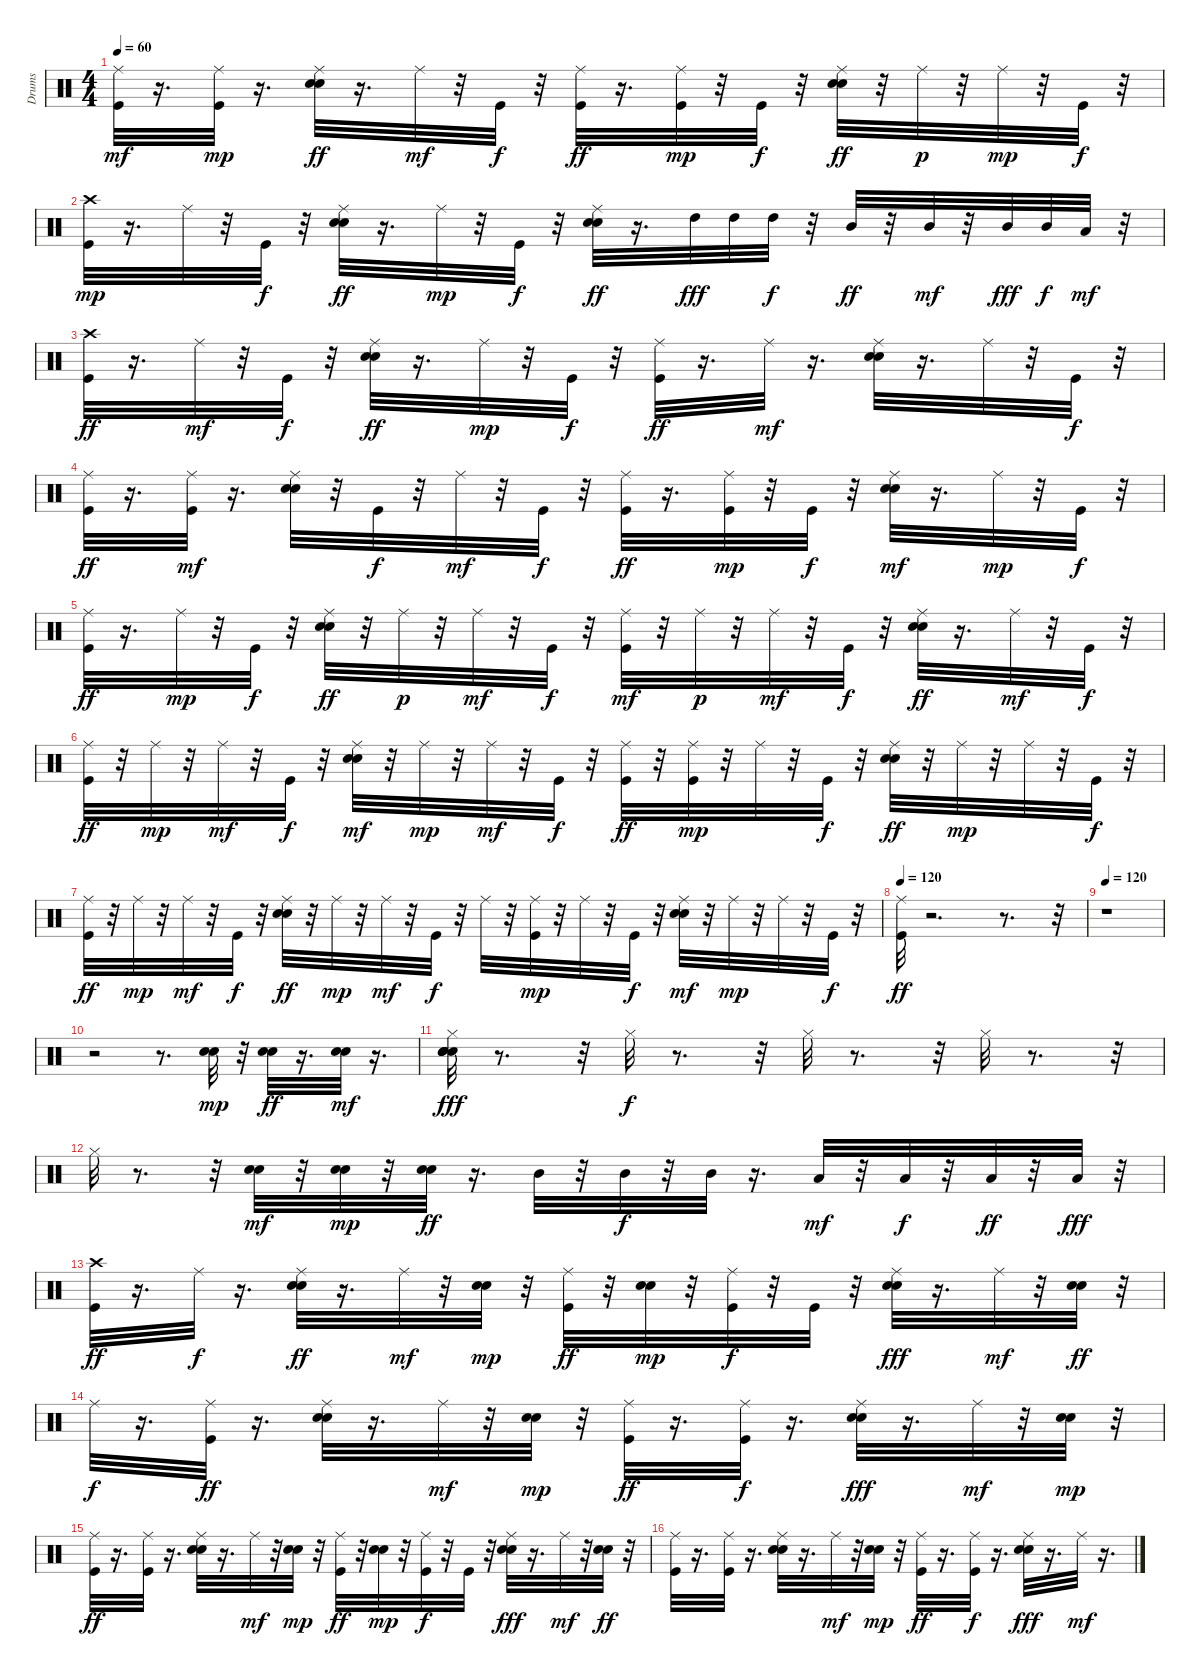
\track ("Drums" "Drums") {instrument percussion}
\staff {score}
\articulation defaults
\ts (4 4)
\tempo 60
\clef neutral
\ks c
("Kick (hit)" "Ride (middle)").32{dy mf} r.16{d} ("Kick (hit)" "Ride (middle)").32{dy mp} r.16{d} ("Ride (middle)" "Snare (hit) 2" "Electric Snare (hit)").32{dy ff} r.16{d} "Ride (middle)".32{dy mf} r.32 "Kick (hit)".32{dy f} r.32 ("Ride (middle)" "Kick (hit)").32{dy ff} r.16{d} ("Kick (hit)" "Ride (middle)").32{dy mp} r.32 "Kick (hit)".32{dy f} r.32 ("Snare (hit) 2" "Ride (middle)" "Electric Snare (hit)").32{dy ff} r.32 "Ride (middle)".32{dy p} r.32 "Ride (middle)".32{dy mp} r.32 "Kick (hit)".32{dy f} r.32 |
("Kick (hit)" "Crash high (hit)").32{dy mp} r.16{d} "Ride (middle)".32 r.32 "Kick (hit)".32{dy f} r.32 ("Snare (hit) 2" "Ride (middle)" "Electric Snare (hit)").32{dy ff} r.16{d} "Ride (middle)".32{dy mp} r.32 "Kick (hit)".32{dy f} r.32 ("Ride (middle)" "Snare (hit) 2" "Electric Snare (hit)").32{dy ff} r.16{d} "High Tom (hit)".32{dy fff} "High Tom (hit)".32 "High Tom (hit)".32{dy f} r.32 "Mid Tom (hit)".32{dy ff} r.32 "Mid Tom (hit)".32{dy mf} r.32 "Mid Tom (hit)".32{dy fff} "Mid Tom (hit)".32{dy f} "Low Tom (hit)".32{dy mf} r.32 |
("Crash high (hit)" "Kick (hit)").32{dy ff} r.16{d} "Ride (middle)".32{dy mf} r.32 "Kick (hit)".32{dy f} r.32 ("Snare (hit) 2" "Electric Snare (hit)" "Ride (middle)").32{dy ff} r.16{d} "Ride (middle)".32{dy mp} r.32 "Kick (hit)".32{dy f} r.32 ("Ride (middle)" "Kick (hit)").32{dy ff} r.16{d} "Ride (middle)".32{dy mf} r.16{d} ("Ride (middle)" "Electric Snare (hit)" "Snare (hit) 2").32 r.16{d} "Ride (middle)".32 r.32 "Kick (hit)".32{dy f} r.32 |
("Ride (middle)" "Kick (hit)").32{dy ff} r.16{d} ("Kick (hit)" "Ride (middle)").32{dy mf} r.16{d} ("Electric Snare (hit)" "Ride (middle)" "Snare (hit) 2").32 r.32 "Kick (hit)".32{dy f} r.32 "Ride (middle)".32{dy mf} r.32 "Kick (hit)".32{dy f} r.32 ("Ride (middle)" "Kick (hit)").32{dy ff} r.16{d} ("Ride (middle)" "Kick (hit)").32{dy mp} r.32 "Kick (hit)".32{dy f} r.32 ("Ride (middle)" "Electric Snare (hit)" "Snare (hit) 2").32{dy mf} r.16{d} "Ride (middle)".32{dy mp} r.32 "Kick (hit)".32{dy f} r.32 |
("Ride (middle)" "Kick (hit)").32{dy ff} r.16{d} "Ride (middle)".32{dy mp} r.32 "Kick (hit)".32{dy f} r.32 ("Ride (middle)" "Snare (hit) 2" "Electric Snare (hit)").32{dy ff} r.32 "Ride (middle)".32{dy p} r.32 "Ride (middle)".32{dy mf} r.32 "Kick (hit)".32{dy f} r.32 ("Ride (middle)" "Kick (hit)").32{dy mf} r.32 "Ride (middle)".32{dy p} r.32 "Ride (middle)".32{dy mf} r.32 "Kick (hit)".32{dy f} r.32 ("Snare (hit) 2" "Ride (middle)" "Electric Snare (hit)").32{dy ff} r.16{d} "Ride (middle)".32{dy mf} r.32 "Kick (hit)".32{dy f} r.32 |
("Ride (middle)" "Kick (hit)").32{dy ff} r.32 "Ride (middle)".32{dy mp} r.32 "Ride (middle)".32{dy mf} r.32 "Kick (hit)".32{dy f} r.32 ("Ride (middle)" "Electric Snare (hit)" "Snare (hit) 2").32{dy mf} r.32 "Ride (middle)".32{dy mp} r.32 "Ride (middle)".32{dy mf} r.32 "Kick (hit)".32{dy f} r.32 ("Ride (middle)" "Kick (hit)").32{dy ff} r.32 ("Kick (hit)" "Ride (middle)").32{dy mp} r.32 "Ride (middle)".32 r.32 "Kick (hit)".32{dy f} r.32 ("Ride (middle)" "Snare (hit) 2" "Electric Snare (hit)").32{dy ff} r.32 "Ride (middle)".32{dy mp} r.32 "Ride (middle)".32 r.32 "Kick (hit)".32{dy f} r.32 |
("Kick (hit)" "Ride (middle)").32{dy ff} r.32 "Ride (middle)".32{dy mp} r.32 "Ride (middle)".32{dy mf} r.32 "Kick (hit)".32{dy f} r.32 ("Ride (middle)" "Snare (hit) 2" "Electric Snare (hit)").32{dy ff} r.32 "Ride (middle)".32{dy mp} r.32 "Ride (middle)".32{dy mf} r.32 "Kick (hit)".32{dy f} r.32 "Ride (middle)".32 r.32 ("Kick (hit)" "Ride (middle)").32{dy mp} r.32 "Ride (middle)".32 r.32 "Kick (hit)".32{dy f} r.32 ("Ride (middle)" "Electric Snare (hit)" "Snare (hit) 2").32{dy mf} r.32 "Ride (middle)".32{dy mp} r.32 "Ride (middle)".32 r.32 "Kick (hit)".32{dy f} r.32 |
\tempo 120
("Ride (middle)" "Kick (hit)").32{dy ff} r.2{d} r.8{d} r.32 |
\tempo 120
r.1 |
r.2 r.8{d} ("Snare (hit) 2" "Electric Snare (hit)").32{dy mp} r.32 ("Electric Snare (hit)" "Snare (hit) 2").32{dy ff} r.16{d} ("Electric Snare (hit)" "Snare (hit) 2").32{dy mf} r.16{d} |
("Snare (hit) 2" "Electric Snare (hit)" "Hi-Hat (closed)" "Electric Snare (hit)" "Snare (hit) 2").32{dy fff} r.8{d} r.32 "Hi-Hat (closed)".32{dy f} r.8{d} r.32 "Hi-Hat (closed)".32 r.8{d} r.32 "Hi-Hat (closed)".32 r.8{d} r.32 |
"Hi-Hat (closed)".32 r.8{d} r.32 ("Electric Snare (hit)" "Snare (hit) 2").32{dy mf} r.32 ("Snare (hit) 2" "Electric Snare (hit)").32{dy mp} r.32 ("Snare (hit) 2" "Electric Snare (hit)").32{dy ff} r.16{d} "Mid Tom (hit)".32 r.32 "Mid Tom (hit)".32{dy f} r.32 "Mid Tom (hit)".32 r.16{d} "Low Tom (hit)".32{dy mf} r.32 "Low Tom (hit)".32{dy f} r.32 "Low Tom (hit)".32{dy ff} r.32 "Low Tom (hit)".32{dy fff} r.32 |
("Crash high (hit)" "Kick (hit)").32{dy ff} r.16{d} "Ride (middle)".32{dy f} r.16{d} ("Electric Snare (hit)" "Snare (hit) 2" "Ride (middle)").32{dy ff} r.16{d} "Ride (middle)".32{dy mf} r.32 ("Snare (hit) 2" "Electric Snare (hit)").32{dy mp} r.32 ("Ride (middle)" "Kick (hit)").32{dy ff} r.32 ("Snare (hit) 2" "Electric Snare (hit)").32{dy mp} r.32 ("Ride (middle)" "Kick (hit)").32{dy f} r.32 "Kick (hit)".32 r.32 ("Ride (middle)" "Electric Snare (hit)" "Snare (hit) 2").32{dy fff} r.16{d} "Ride (middle)".32{dy mf} r.32 ("Snare (hit) 2" "Electric Snare (hit)").32{dy ff} r.32 |
"Ride (middle)".32{dy f} r.16{d} ("Kick (hit)" "Ride (middle)").32{dy ff} r.16{d} ("Electric Snare (hit)" "Snare (hit) 2" "Ride (middle)").32 r.16{d} "Ride (middle)".32{dy mf} r.32 ("Snare (hit) 2" "Electric Snare (hit)").32{dy mp} r.32 ("Ride (middle)" "Kick (hit)").32{dy ff} r.16{d} ("Ride (middle)" "Kick (hit)").32{dy f} r.16{d} ("Ride (middle)" "Snare (hit) 2" "Electric Snare (hit)").32{dy fff} r.16{d} "Ride (middle)".32{dy mf} r.32 ("Electric Snare (hit)" "Snare (hit) 2").32{dy mp} r.32 |
("Ride (middle)" "Kick (hit)").32{dy ff} r.16{d} ("Kick (hit)" "Ride (middle)").32 r.16{d} ("Electric Snare (hit)" "Snare (hit) 2" "Ride (middle)").32 r.16{d} "Ride (middle)".32{dy mf} r.32 ("Snare (hit) 2" "Electric Snare (hit)").32{dy mp} r.32 ("Ride (middle)" "Kick (hit)").32{dy ff} r.32 ("Snare (hit) 2" "Electric Snare (hit)").32{dy mp} r.32 ("Kick (hit)" "Ride (middle)").32{dy f} r.32 "Kick (hit)".32 r.32 ("Ride (middle)" "Snare (hit) 2" "Electric Snare (hit)").32{dy fff} r.16{d} "Ride (middle)".32{dy mf} r.32 ("Snare (hit) 2" "Electric Snare (hit)").32{dy ff} r.32 |
("Ride (middle)" "Kick (hit)").32 r.16{d} ("Kick (hit)" "Ride (middle)").32 r.16{d} ("Electric Snare (hit)" "Snare (hit) 2" "Ride (middle)").32 r.16{d} "Ride (middle)".32{dy mf} r.32 ("Snare (hit) 2" "Electric Snare (hit)").32{dy mp} r.32 ("Ride (middle)" "Kick (hit)").32{dy ff} r.16{d} ("Kick (hit)" "Ride (middle)").32{dy f} r.16{d} ("Ride (middle)" "Snare (hit) 2" "Electric Snare (hit)").32{dy fff} r.16{d} "Ride (middle)".32{dy mf} r.16{d}
